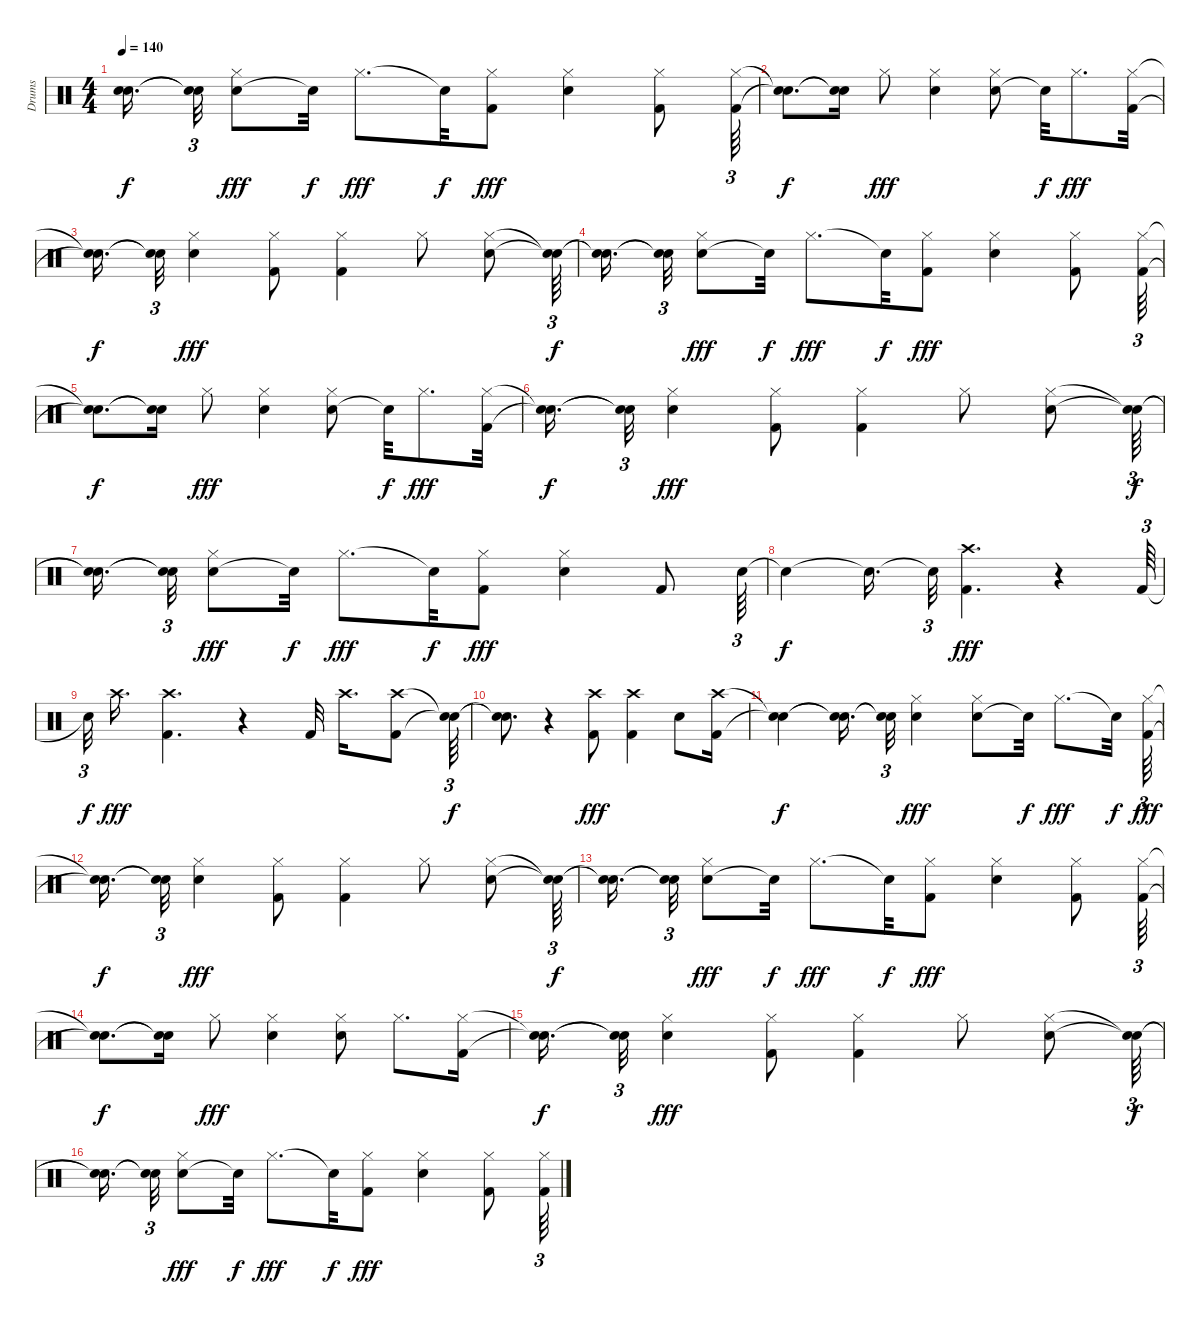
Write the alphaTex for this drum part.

\track ("Drums" "Drums") {instrument percussion}
\staff {score}
\articulation defaults
\ts (4 4)
\tempo 140
\clef neutral
\ks c
("Snare (hit)"{t} "Snare (hit)"{t}).16{d dy f} ("Snare (hit)"{t} "Snare (hit)"{t}).32{tu (3 2)} ("Snare (hit) 2" "Hi-Hat (closed)").8{dy fff} "Snare (hit)"{t}.32{dy f} "Hi-Hat (closed)".8{d dy fff} "Snare (hit)"{t}.32{dy f} ("Hi-Hat (closed)" "Kick (hit) 2").8{dy fff} ("Electric Snare (hit)" "Hi-Hat (closed)").4 ("Kick (hit) 2" "Hi-Hat (closed)").8 ("Hi-Hat (closed)" "Kick (hit) 2").64{tu (3 2)} |
("Snare (hit)"{t} "Snare (hit)"{t}).8{d dy f} ("Snare (hit)"{t} "Snare (hit)"{t}).16 "Hi-Hat (closed)".8{dy fff} ("Snare (hit) 2" "Hi-Hat (closed)").4 ("Snare (hit) 2" "Hi-Hat (closed)").8 "Snare (hit)"{t}.32{dy f} "Hi-Hat (closed)".8{d dy fff} ("Hi-Hat (closed)" "Kick (hit) 2").32 |
("Snare (hit)"{t} "Snare (hit)"{t}).16{d dy f} ("Snare (hit)"{t} "Snare (hit)"{t}).32{tu (3 2)} ("Electric Snare (hit)" "Hi-Hat (closed)").4{dy fff} ("Hi-Hat (closed)" "Kick (hit) 2").8 ("Kick (hit) 2" "Hi-Hat (closed)").4 "Hi-Hat (closed)".8 ("Snare (hit) 2" "Hi-Hat (closed)").8 ("Snare (hit)"{t} "Snare (hit)"{t}).64{tu (3 2) dy f} |
("Snare (hit)"{t} "Snare (hit)"{t}).16{d} ("Snare (hit)"{t} "Snare (hit)"{t}).32{tu (3 2)} ("Snare (hit) 2" "Hi-Hat (closed)").8{dy fff} "Snare (hit)"{t}.32{dy f} "Hi-Hat (closed)".8{d dy fff} "Snare (hit)"{t}.32{dy f} ("Hi-Hat (closed)" "Kick (hit) 2").8{dy fff} ("Electric Snare (hit)" "Hi-Hat (closed)").4 ("Hi-Hat (closed)" "Kick (hit) 2").8 ("Kick (hit) 2" "Hi-Hat (closed)").64{tu (3 2)} |
("Snare (hit)"{t} "Snare (hit)"{t}).8{d dy f} ("Snare (hit)"{t} "Snare (hit)"{t}).16 "Hi-Hat (closed)".8{dy fff} ("Snare (hit) 2" "Hi-Hat (closed)").4 ("Snare (hit) 2" "Hi-Hat (closed)").8 "Snare (hit)"{t}.32{dy f} "Hi-Hat (closed)".8{d dy fff} ("Hi-Hat (closed)" "Kick (hit) 2").32 |
("Snare (hit)"{t} "Snare (hit)"{t}).16{d dy f} ("Snare (hit)"{t} "Snare (hit)"{t}).32{tu (3 2)} ("Electric Snare (hit)" "Hi-Hat (closed)").4{dy fff} ("Kick (hit) 2" "Hi-Hat (closed)").8 ("Hi-Hat (closed)" "Kick (hit) 2").4 "Hi-Hat (closed)".8 ("Snare (hit) 2" "Hi-Hat (closed)").8 ("Snare (hit)"{t} "Snare (hit)"{t}).64{tu (3 2) dy f} |
("Snare (hit)"{t} "Snare (hit)"{t}).16{d} ("Snare (hit)"{t} "Snare (hit)"{t}).32{tu (3 2)} ("Snare (hit) 2" "Hi-Hat (closed)").8{dy fff} "Snare (hit)"{t}.32{dy f} "Hi-Hat (closed)".8{d dy fff} "Snare (hit)"{t}.32{dy f} ("Hi-Hat (closed)" "Kick (hit) 2").8{dy fff} ("Electric Snare (hit)" "Hi-Hat (closed)").4 "Kick (hit) 2".8 "Snare (hit) 2".64{tu (3 2)} |
"Snare (hit)"{t}.4{dy f} "Snare (hit)"{t}.16{d} "Snare (hit)"{t}.32{tu (3 2)} ("Crash high (hit)" "Kick (hit) 2").4{d dy fff} r.4 "Kick (hit) 2".64{tu (3 2)} |
"Snare (hit)"{t}.32{tu (3 2) dy f} "Crash high (hit)".16{d dy fff} ("Kick (hit) 2" "Crash high (hit)").4{d} r.4 "Kick (hit) 2".32 "Crash high (hit)".16{d} ("Kick (hit) 2" "Crash high (hit)").8 ("Snare (hit)"{t} "Snare (hit)"{t}).64{tu (3 2) dy f} |
("Snare (hit)"{t} "Snare (hit)"{t}).8{d} r.4 ("Kick (hit) 2" "Crash high (hit)").8{dy fff} ("Crash high (hit)" "Kick (hit) 2").4 "Snare (hit) 2".8 ("Kick (hit) 2" "Crash high (hit)").16 |
("Snare (hit)"{t} "Snare (hit)"{t}).4{dy f} ("Snare (hit)"{t} "Snare (hit)"{t}).16{d} ("Snare (hit)"{t} "Snare (hit)"{t}).32{tu (3 2)} ("Snare (hit) 2" "Hi-Hat (closed)").4{dy fff} ("Snare (hit) 2" "Hi-Hat (closed)").8 "Snare (hit)"{t}.32{dy f} "Hi-Hat (closed)".8{d dy fff} "Snare (hit)"{t}.32{dy f} ("Hi-Hat (closed)" "Kick (hit) 2").64{tu (3 2) dy fff} |
("Snare (hit)"{t} "Snare (hit)"{t}).16{d dy f} ("Snare (hit)"{t} "Snare (hit)"{t}).32{tu (3 2)} ("Electric Snare (hit)" "Hi-Hat (closed)").4{dy fff} ("Hi-Hat (closed)" "Kick (hit) 2").8 ("Kick (hit) 2" "Hi-Hat (closed)").4 "Hi-Hat (closed)".8 ("Snare (hit) 2" "Hi-Hat (closed)").8 ("Snare (hit)"{t} "Snare (hit)"{t}).64{tu (3 2) dy f} |
("Snare (hit)"{t} "Snare (hit)"{t}).16{d} ("Snare (hit)"{t} "Snare (hit)"{t}).32{tu (3 2)} ("Snare (hit) 2" "Hi-Hat (closed)").8{dy fff} "Snare (hit)"{t}.32{dy f} "Hi-Hat (closed)".8{d dy fff} "Snare (hit)"{t}.32{dy f} ("Hi-Hat (closed)" "Kick (hit) 2").8{dy fff} ("Electric Snare (hit)" "Hi-Hat (closed)").4 ("Hi-Hat (closed)" "Kick (hit) 2").8 ("Kick (hit) 2" "Hi-Hat (closed)").64{tu (3 2)} |
("Snare (hit)"{t} "Snare (hit)"{t}).8{d dy f} ("Snare (hit)"{t} "Snare (hit)"{t}).16 "Hi-Hat (closed)".8{dy fff} ("Snare (hit) 2" "Hi-Hat (closed)").4 ("Snare (hit) 2" "Hi-Hat (closed)").8 "Hi-Hat (closed)".8{d} ("Hi-Hat (closed)" "Kick (hit) 2").16 |
("Snare (hit)"{t} "Snare (hit)"{t}).16{d dy f} ("Snare (hit)"{t} "Snare (hit)"{t}).32{tu (3 2)} ("Electric Snare (hit)" "Hi-Hat (closed)").4{dy fff} ("Kick (hit) 2" "Hi-Hat (closed)").8 ("Hi-Hat (closed)" "Kick (hit) 2").4 "Hi-Hat (closed)".8 ("Snare (hit) 2" "Hi-Hat (closed)").8 ("Snare (hit)"{t} "Snare (hit)"{t}).64{tu (3 2) dy f} |
("Snare (hit)"{t} "Snare (hit)"{t}).16{d} ("Snare (hit)"{t} "Snare (hit)"{t}).32{tu (3 2)} ("Snare (hit) 2" "Hi-Hat (closed)").8{dy fff} "Snare (hit)"{t}.32{dy f} "Hi-Hat (closed)".8{d dy fff} "Snare (hit)"{t}.32{dy f} ("Hi-Hat (closed)" "Kick (hit) 2").8{dy fff} ("Electric Snare (hit)" "Hi-Hat (closed)").4 ("Hi-Hat (closed)" "Kick (hit) 2").8 ("Kick (hit) 2" "Hi-Hat (closed)").64{tu (3 2)}
